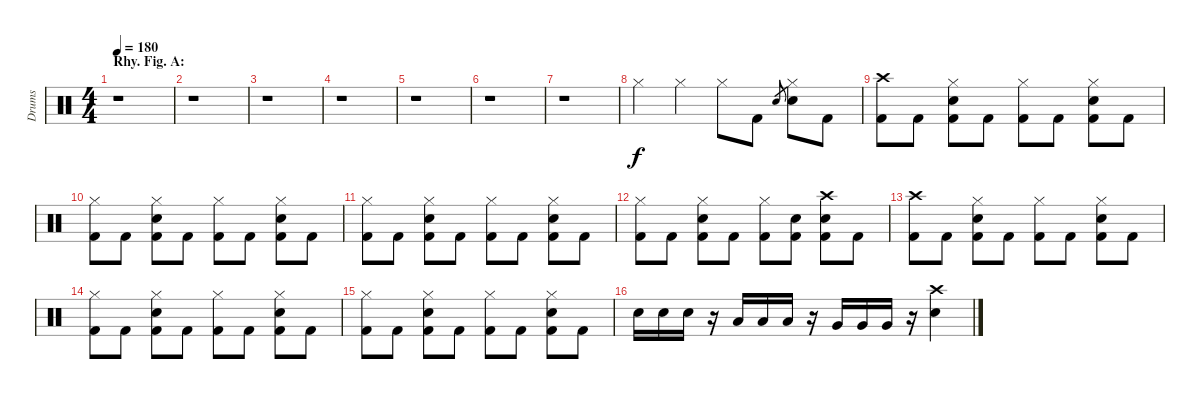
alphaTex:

\track ("Drums" "Drums") {instrument percussion}
\staff {score}
\articulation defaults
\ts (4 4)
\section ("" "Rhy. Fig. A:")
\tempo 180
\clef neutral
\ks c
r.1{dy f} |
r.1 |
r.1 |
r.1 |
r.1 |
r.1 |
r.1 |
"Hi-Hat (closed)".4 "Hi-Hat (closed)".4 "Hi-Hat (closed)".8 "Kick (hit) 2".8 "Electric Snare (hit)".8{gr} ("Hi-Hat (closed)" "Electric Snare (hit)").8 "Kick (hit) 2".8 |
("Crash high (hit)" "Kick (hit) 2").8 "Kick (hit) 2".8 ("Hi-Hat (closed)" "Electric Snare (hit)" "Kick (hit) 2").8 "Kick (hit) 2".8 ("Hi-Hat (closed)" "Kick (hit) 2").8 "Kick (hit) 2".8 ("Hi-Hat (closed)" "Electric Snare (hit)" "Kick (hit) 2").8 "Kick (hit) 2".8 |
("Hi-Hat (closed)" "Kick (hit) 2").8 "Kick (hit) 2".8 ("Hi-Hat (closed)" "Electric Snare (hit)" "Kick (hit) 2").8 "Kick (hit) 2".8 ("Hi-Hat (closed)" "Kick (hit) 2").8 "Kick (hit) 2".8 ("Hi-Hat (closed)" "Electric Snare (hit)" "Kick (hit) 2").8 "Kick (hit) 2".8 |
("Hi-Hat (closed)" "Kick (hit) 2").8 "Kick (hit) 2".8 ("Hi-Hat (closed)" "Electric Snare (hit)" "Kick (hit) 2").8 "Kick (hit) 2".8 ("Hi-Hat (closed)" "Kick (hit) 2").8 "Kick (hit) 2".8 ("Hi-Hat (closed)" "Electric Snare (hit)" "Kick (hit) 2").8 "Kick (hit) 2".8 |
("Hi-Hat (closed)" "Kick (hit) 2").8 "Kick (hit) 2".8 ("Hi-Hat (closed)" "Electric Snare (hit)" "Kick (hit) 2").8 "Kick (hit) 2".8 ("Hi-Hat (closed)" "Kick (hit) 2").8 ("Electric Snare (hit)" "Kick (hit) 2").8 ("Crash high (hit)" "Electric Snare (hit)" "Kick (hit) 2").8 "Kick (hit) 2".8 |
("Crash high (hit)" "Kick (hit) 2").8 "Kick (hit) 2".8 ("Hi-Hat (closed)" "Electric Snare (hit)" "Kick (hit) 2").8 "Kick (hit) 2".8 ("Hi-Hat (closed)" "Kick (hit) 2").8 "Kick (hit) 2".8 ("Hi-Hat (closed)" "Electric Snare (hit)" "Kick (hit) 2").8 "Kick (hit) 2".8 |
("Hi-Hat (closed)" "Kick (hit) 2").8 "Kick (hit) 2".8 ("Hi-Hat (closed)" "Electric Snare (hit)" "Kick (hit) 2").8 "Kick (hit) 2".8 ("Hi-Hat (closed)" "Kick (hit) 2").8 "Kick (hit) 2".8 ("Hi-Hat (closed)" "Electric Snare (hit)" "Kick (hit) 2").8 "Kick (hit) 2".8 |
("Hi-Hat (closed)" "Kick (hit) 2").8 "Kick (hit) 2".8 ("Hi-Hat (closed)" "Electric Snare (hit)" "Kick (hit) 2").8 "Kick (hit) 2".8 ("Hi-Hat (closed)" "Kick (hit) 2").8 "Kick (hit) 2".8 ("Hi-Hat (closed)" "Electric Snare (hit)" "Kick (hit) 2").8 "Kick (hit) 2".8 |
"Electric Snare (hit)".16 "Electric Snare (hit)".16 "Electric Snare (hit)".16 r.16 "Low Tom (hit)".16 "Low Tom (hit)".16 "Low Tom (hit)".16 r.16 "Very Low Tom (hit)".16 "Very Low Tom (hit)".16 "Very Low Tom (hit)".16 r.16 ("Crash high (hit)" "Electric Snare (hit)").4
